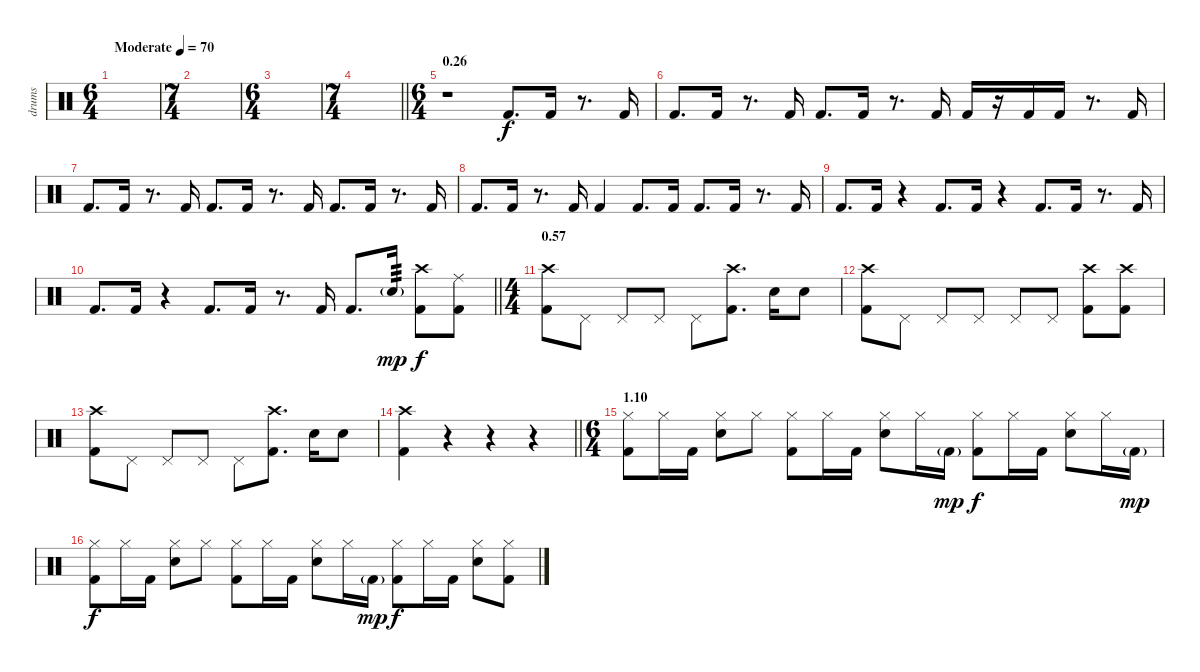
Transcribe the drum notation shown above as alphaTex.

\track ("drums" "drums") {instrument percussion}
\staff {score}
\articulation defaults
\ts (6 4)
\tempo (70 "Moderate")
\clef neutral
\ks c
|
\ts (7 4)
|
\ts (6 4)
|
\ts (7 4)
\barLineRight lightlight
|
\ts (6 4)
\section ("" "0.26")
r.1 "Kick (hit) 2".8{d} "Kick (hit) 2".16 r.8{d} "Kick (hit) 2".16 |
"Kick (hit) 2".8{d} "Kick (hit) 2".16 r.8{d} "Kick (hit) 2".16 "Kick (hit) 2".8{d} "Kick (hit) 2".16 r.8{d} "Kick (hit) 2".16 "Kick (hit) 2".16 r.16 "Kick (hit) 2".16 "Kick (hit) 2".16 r.8{d} "Kick (hit) 2".16 |
"Kick (hit) 2".8{d} "Kick (hit) 2".16 r.8{d} "Kick (hit) 2".16 "Kick (hit) 2".8{d} "Kick (hit) 2".16 r.8{d} "Kick (hit) 2".16 "Kick (hit) 2".8{d} "Kick (hit) 2".16 r.8{d} "Kick (hit) 2".16 |
"Kick (hit) 2".8{d} "Kick (hit) 2".16 r.8{d} "Kick (hit) 2".16 "Kick (hit) 2".4 "Kick (hit) 2".8{d} "Kick (hit) 2".16 "Kick (hit) 2".8{d} "Kick (hit) 2".16 r.8{d} "Kick (hit) 2".16 |
"Kick (hit) 2".8{d} "Kick (hit) 2".16 r.4 "Kick (hit) 2".8{d} "Kick (hit) 2".16 r.4 "Kick (hit) 2".8{d} "Kick (hit) 2".16 r.8{d} "Kick (hit) 2".16 |
\barLineRight lightlight "Kick (hit) 2".8{d} "Kick (hit) 2".16
r.4 "Kick (hit) 2".8{d} "Kick (hit) 2".16 r.8{d} "Kick (hit) 2".16 "Kick (hit) 2".8{d} "Electric Snare (hit)"{g}.16{tp 3 dy mp} ("Crash high (hit)" "Kick (hit) 2").8{dy f} ("Ride (middle)" "Kick (hit) 2").8 |
\ts (4 4)
\section ("" "0.57")
("Crash high (hit)" "Kick (hit) 2").8 "Pedal Hi-Hat (hit)".8 "Pedal Hi-Hat (hit)".8 "Pedal Hi-Hat (hit)".8 "Pedal Hi-Hat (hit)".8 ("Crash high (hit)" "Kick (hit) 2").8{d} "Electric Snare (hit)".16 "Electric Snare (hit)".8 |
("Crash high (hit)" "Kick (hit) 2").8 "Pedal Hi-Hat (hit)".8 "Pedal Hi-Hat (hit)".8 "Pedal Hi-Hat (hit)".8 "Pedal Hi-Hat (hit)".8 "Pedal Hi-Hat (hit)".8 ("Crash high (hit)" "Kick (hit) 2").8 ("Crash high (hit)" "Kick (hit) 2").8 |
("Crash high (hit)" "Kick (hit) 2").8 "Pedal Hi-Hat (hit)".8 "Pedal Hi-Hat (hit)".8 "Pedal Hi-Hat (hit)".8 "Pedal Hi-Hat (hit)".8 ("Crash high (hit)" "Kick (hit) 2").8{d} "Electric Snare (hit)".16 "Electric Snare (hit)".8 |
\barLineRight lightlight
("Crash high (hit)" "Kick (hit) 2").4 r.4 r.4 r.4 |
\ts (6 4)
\section ("" "1.10")
("Hi-Hat (closed)" "Kick (hit) 2").8 "Hi-Hat (closed)".16 "Kick (hit) 2".16 ("Hi-Hat (closed)" "Electric Snare (hit)").8 "Hi-Hat (closed)".8 ("Hi-Hat (closed)" "Kick (hit) 2").8 "Hi-Hat (closed)".16 "Kick (hit) 2".16 ("Hi-Hat (closed)" "Electric Snare (hit)").8 "Hi-Hat (closed)".16 "Kick (hit) 2"{g}.16{dy mp} ("Hi-Hat (closed)" "Kick (hit) 2").8{dy f} "Hi-Hat (closed)".16 "Kick (hit) 2".16 ("Hi-Hat (closed)" "Electric Snare (hit)").8 "Hi-Hat (closed)".16 "Kick (hit) 2"{g}.16{dy mp} |
("Hi-Hat (closed)" "Kick (hit) 2").8{dy f} "Hi-Hat (closed)".16 "Kick (hit) 2".16 ("Hi-Hat (closed)" "Electric Snare (hit)").8 "Hi-Hat (closed)".8 ("Hi-Hat (closed)" "Kick (hit) 2").8 "Hi-Hat (closed)".16 "Kick (hit) 2".16 ("Hi-Hat (closed)" "Electric Snare (hit)").8 "Hi-Hat (closed)".16 "Kick (hit) 2"{g}.16{dy mp} ("Hi-Hat (closed)" "Kick (hit) 2").8{dy f} "Hi-Hat (closed)".16 "Kick (hit) 2".16 ("Hi-Hat (closed)" "Electric Snare (hit)").8 ("Hi-Hat (closed)" "Kick (hit) 2").8
